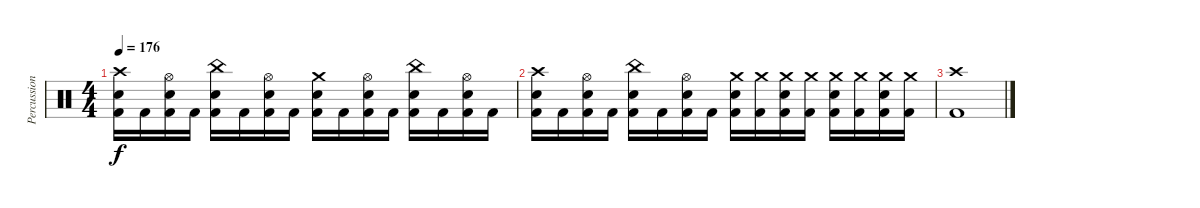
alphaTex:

\track ("Percussion" "Percussion") {instrument percussion}
\staff {score}
\articulation defaults
\ts (4 4)
\tempo 176
\clef neutral
\ks c
("Crash high (hit)" "Electric Snare (hit)" "Kick (hit) 2").16{dy f} "Kick (hit) 2".16 ("Hi-Hat (open)" "Electric Snare (hit)" "Kick (hit) 2").16 "Kick (hit) 2".16 ("China (hit)" "Electric Snare (hit)" "Kick (hit) 2").16 "Kick (hit) 2".16 ("Hi-Hat (open)" "Electric Snare (hit)" "Kick (hit) 2").16 "Kick (hit) 2".16 ("Crash medium (hit)" "Electric Snare (hit)" "Kick (hit) 2").16 "Kick (hit) 2".16 ("Hi-Hat (open)" "Electric Snare (hit)" "Kick (hit) 2").16 "Kick (hit) 2".16 ("China (hit)" "Electric Snare (hit)" "Kick (hit) 2").16 "Kick (hit) 2".16 ("Hi-Hat (open)" "Electric Snare (hit)" "Kick (hit) 2").16 "Kick (hit) 2".16 |
("Crash high (hit)" "Electric Snare (hit)" "Kick (hit) 2").16 "Kick (hit) 2".16 ("Hi-Hat (open)" "Electric Snare (hit)" "Kick (hit) 2").16 "Kick (hit) 2".16 ("China (hit)" "Electric Snare (hit)" "Kick (hit) 2").16 "Kick (hit) 2".16 ("Hi-Hat (open)" "Electric Snare (hit)" "Kick (hit) 2").16 "Kick (hit) 2".16 ("Crash medium (hit)" "Electric Snare (hit)" "Kick (hit) 2").16 ("Crash medium (hit)" "Kick (hit) 2").16 ("Crash medium (hit)" "Electric Snare (hit)" "Kick (hit) 2").16 ("Crash medium (hit)" "Kick (hit) 2").16 ("Crash medium (hit)" "Electric Snare (hit)" "Kick (hit) 2").16 ("Crash medium (hit)" "Kick (hit) 2").16 ("Crash medium (hit)" "Electric Snare (hit)" "Kick (hit) 2").16 ("Crash medium (hit)" "Kick (hit) 2").16 |
("Crash high (hit)" "Kick (hit) 2").1
